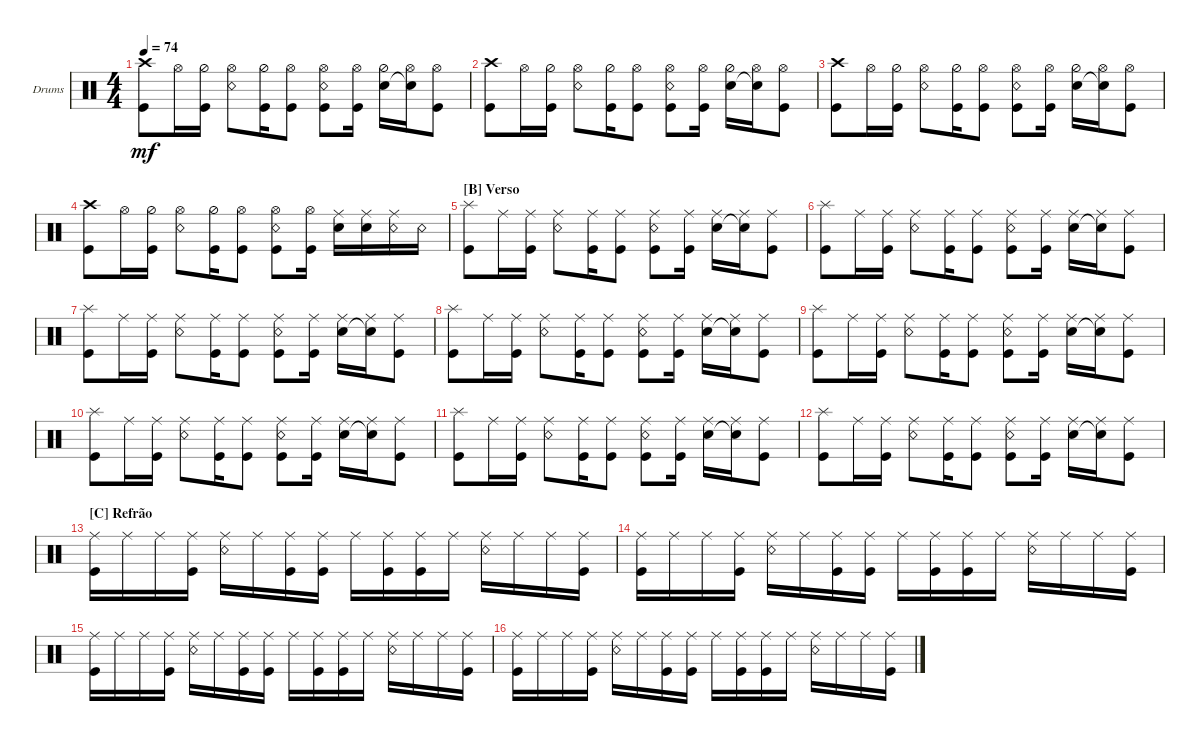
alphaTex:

\defaultSystemsLayout 4
\bracketExtendMode groupsimilarinstruments
\firstSystemTrackNameOrientation horizontal
\otherSystemsTrackNameOrientation horizontal
\track ("Drum" "Drums") {multiBarRest instrument percussion}
\staff {score}
\articulation defaults
\ts (4 4)
\tempo 74
\clef neutral
\ks c
("Kick (hit)" "Crash high (hit)").8{dy mf} "Hi-Hat (open)".16 ("Kick (hit)" "Hi-Hat (half)").16 ("Snare (rim shot)" "Hi-Hat (open)").8 ("Kick (hit)" "Hi-Hat (half)").16 ("Kick (hit)" "Hi-Hat (open)").8 ("Kick (hit)" "Snare (rim shot)" "Hi-Hat (open)").8 ("Kick (hit)" "Hi-Hat (open)").16 ("Snare (hit) 2" "Hi-Hat (half)").16 ("Snare (hit) 2"{t} "Hi-Hat (open)").16 ("Kick (hit)" "Hi-Hat (open)").8 |
("Kick (hit)" "Crash high (hit)").8 "Hi-Hat (open)".16 ("Kick (hit)" "Hi-Hat (half)").16 ("Snare (rim shot)" "Hi-Hat (open)").8 ("Kick (hit)" "Hi-Hat (half)").16 ("Kick (hit)" "Hi-Hat (open)").8 ("Kick (hit)" "Snare (rim shot)" "Hi-Hat (open)").8 ("Kick (hit)" "Hi-Hat (open)").16 ("Snare (hit) 2" "Hi-Hat (half)").16 ("Snare (hit) 2"{t} "Hi-Hat (open)").16 ("Kick (hit)" "Hi-Hat (open)").8 |
("Kick (hit)" "Crash high (hit)").8 "Hi-Hat (open)".16 ("Kick (hit)" "Hi-Hat (half)").16 ("Snare (rim shot)" "Hi-Hat (open)").8 ("Kick (hit)" "Hi-Hat (half)").16 ("Kick (hit)" "Hi-Hat (open)").8 ("Kick (hit)" "Snare (rim shot)" "Hi-Hat (open)").8 ("Kick (hit)" "Hi-Hat (open)").16 ("Snare (hit) 2" "Hi-Hat (half)").16 ("Snare (hit) 2"{t} "Hi-Hat (open)").16 ("Kick (hit)" "Hi-Hat (open)").8 |
("Kick (hit)" "Crash high (hit)").8 "Hi-Hat (open)".16 ("Kick (hit)" "Hi-Hat (half)").16 ("Snare (rim shot)" "Hi-Hat (open)").8 ("Kick (hit)" "Hi-Hat (half)").16 ("Kick (hit)" "Hi-Hat (open)").8 ("Kick (hit)" "Snare (rim shot)" "Hi-Hat (open)").8 ("Kick (hit)" "Hi-Hat (open)").16 ("Snare (hit) 2" "Ride (middle)").16 ("Snare (hit) 2" "Ride (middle)").16 ("Ride (middle)" "Snare (rim shot)").16 "Snare (rim shot)".16 |
\section ("B" "Verso")
("Kick (hit)" "Splash (hit)").8 "Ride (middle)".16 ("Kick (hit)" "Ride (middle)").16 ("Snare (rim shot)" "Ride (middle)").8 ("Kick (hit)" "Ride (middle)").16 ("Kick (hit)" "Ride (middle)").8 ("Kick (hit)" "Snare (rim shot)" "Ride (middle)").8 ("Kick (hit)" "Ride (middle)").16 ("Snare (hit) 2" "Ride (middle)").16 ("Snare (hit) 2"{t} "Ride (middle)").16 ("Kick (hit)" "Ride (middle)").8 |
("Kick (hit)" "Splash (hit)").8 "Ride (middle)".16 ("Kick (hit)" "Ride (middle)").16 ("Snare (rim shot)" "Ride (middle)").8 ("Kick (hit)" "Ride (middle)").16 ("Kick (hit)" "Ride (middle)").8 ("Kick (hit)" "Snare (rim shot)" "Ride (middle)").8 ("Kick (hit)" "Ride (middle)").16 ("Snare (hit) 2" "Ride (middle)").16 ("Snare (hit) 2"{t} "Ride (middle)").16 ("Kick (hit)" "Ride (middle)").8 |
("Kick (hit)" "Splash (hit)").8 "Ride (middle)".16 ("Kick (hit)" "Ride (middle)").16 ("Snare (rim shot)" "Ride (middle)").8 ("Kick (hit)" "Ride (middle)").16 ("Kick (hit)" "Ride (middle)").8 ("Kick (hit)" "Snare (rim shot)" "Ride (middle)").8 ("Kick (hit)" "Ride (middle)").16 ("Snare (hit) 2" "Ride (middle)").16 ("Snare (hit) 2"{t} "Ride (middle)").16 ("Kick (hit)" "Ride (middle)").8 |
("Kick (hit)" "Splash (hit)").8 "Ride (middle)".16 ("Kick (hit)" "Ride (middle)").16 ("Snare (rim shot)" "Ride (middle)").8 ("Kick (hit)" "Ride (middle)").16 ("Kick (hit)" "Ride (middle)").8 ("Kick (hit)" "Snare (rim shot)" "Ride (middle)").8 ("Kick (hit)" "Ride (middle)").16 ("Snare (hit) 2" "Ride (middle)").16 ("Snare (hit) 2"{t} "Ride (middle)").16 ("Kick (hit)" "Ride (middle)").8 |
("Kick (hit)" "Splash (hit)").8 "Ride (middle)".16 ("Kick (hit)" "Ride (middle)").16 ("Snare (rim shot)" "Ride (middle)").8 ("Kick (hit)" "Ride (middle)").16 ("Kick (hit)" "Ride (middle)").8 ("Kick (hit)" "Snare (rim shot)" "Ride (middle)").8 ("Kick (hit)" "Ride (middle)").16 ("Snare (hit) 2" "Ride (middle)").16 ("Snare (hit) 2"{t} "Ride (middle)").16 ("Kick (hit)" "Ride (middle)").8 |
("Kick (hit)" "Splash (hit)").8 "Ride (middle)".16 ("Kick (hit)" "Ride (middle)").16 ("Snare (rim shot)" "Ride (middle)").8 ("Kick (hit)" "Ride (middle)").16 ("Kick (hit)" "Ride (middle)").8 ("Kick (hit)" "Snare (rim shot)" "Ride (middle)").8 ("Kick (hit)" "Ride (middle)").16 ("Snare (hit) 2" "Ride (middle)").16 ("Snare (hit) 2"{t} "Ride (middle)").16 ("Kick (hit)" "Ride (middle)").8 |
("Kick (hit)" "Splash (hit)").8 "Ride (middle)".16 ("Kick (hit)" "Ride (middle)").16 ("Snare (rim shot)" "Ride (middle)").8 ("Kick (hit)" "Ride (middle)").16 ("Kick (hit)" "Ride (middle)").8 ("Kick (hit)" "Snare (rim shot)" "Ride (middle)").8 ("Kick (hit)" "Ride (middle)").16 ("Snare (hit) 2" "Ride (middle)").16 ("Snare (hit) 2"{t} "Ride (middle)").16 ("Kick (hit)" "Ride (middle)").8 |
("Kick (hit)" "Splash (hit)").8 "Ride (middle)".16 ("Kick (hit)" "Ride (middle)").16 ("Snare (rim shot)" "Ride (middle)").8 ("Kick (hit)" "Ride (middle)").16 ("Kick (hit)" "Ride (middle)").8 ("Kick (hit)" "Snare (rim shot)" "Ride (middle)").8 ("Kick (hit)" "Ride (middle)").16 ("Snare (hit) 2" "Ride (middle)").16 ("Snare (hit) 2"{t} "Ride (middle)").16 ("Kick (hit)" "Ride (middle)").8 |
\section ("C" "Refrão")
("Ride (middle)" "Kick (hit)").16 "Ride (middle)".16 "Ride (middle)".16 ("Ride (middle)" "Kick (hit)").16 ("Ride (middle)" "Snare (rim shot)").16 "Ride (middle)".16 ("Ride (middle)" "Kick (hit)").16 ("Ride (middle)" "Kick (hit)").16 "Ride (middle)".16 ("Ride (middle)" "Kick (hit)").16 ("Ride (middle)" "Kick (hit)").16 "Ride (middle)".16 ("Ride (middle)" "Snare (rim shot)").16 "Ride (middle)".16 "Ride (middle)".16 ("Ride (middle)" "Kick (hit)").16 |
("Ride (middle)" "Kick (hit)").16 "Ride (middle)".16 "Ride (middle)".16 ("Ride (middle)" "Kick (hit)").16 ("Ride (middle)" "Snare (rim shot)").16 "Ride (middle)".16 ("Ride (middle)" "Kick (hit)").16 ("Ride (middle)" "Kick (hit)").16 "Ride (middle)".16 ("Ride (middle)" "Kick (hit)").16 ("Ride (middle)" "Kick (hit)").16 "Ride (middle)".16 ("Ride (middle)" "Snare (rim shot)").16 "Ride (middle)".16 "Ride (middle)".16 ("Ride (middle)" "Kick (hit)").16 |
("Ride (middle)" "Kick (hit)").16 "Ride (middle)".16 "Ride (middle)".16 ("Ride (middle)" "Kick (hit)").16 ("Ride (middle)" "Snare (rim shot)").16 "Ride (middle)".16 ("Ride (middle)" "Kick (hit)").16 ("Ride (middle)" "Kick (hit)").16 "Ride (middle)".16 ("Ride (middle)" "Kick (hit)").16 ("Ride (middle)" "Kick (hit)").16 "Ride (middle)".16 ("Ride (middle)" "Snare (rim shot)").16 "Ride (middle)".16 "Ride (middle)".16 ("Ride (middle)" "Kick (hit)").16 |
("Ride (middle)" "Kick (hit)").16 "Ride (middle)".16 "Ride (middle)".16 ("Ride (middle)" "Kick (hit)").16 ("Ride (middle)" "Snare (rim shot)").16 "Ride (middle)".16 ("Ride (middle)" "Kick (hit)").16 ("Ride (middle)" "Kick (hit)").16 "Ride (middle)".16 ("Ride (middle)" "Kick (hit)").16 ("Ride (middle)" "Kick (hit)").16 "Ride (middle)".16 ("Ride (middle)" "Snare (rim shot)").16 "Ride (middle)".16 "Ride (middle)".16 ("Ride (middle)" "Kick (hit)").16
